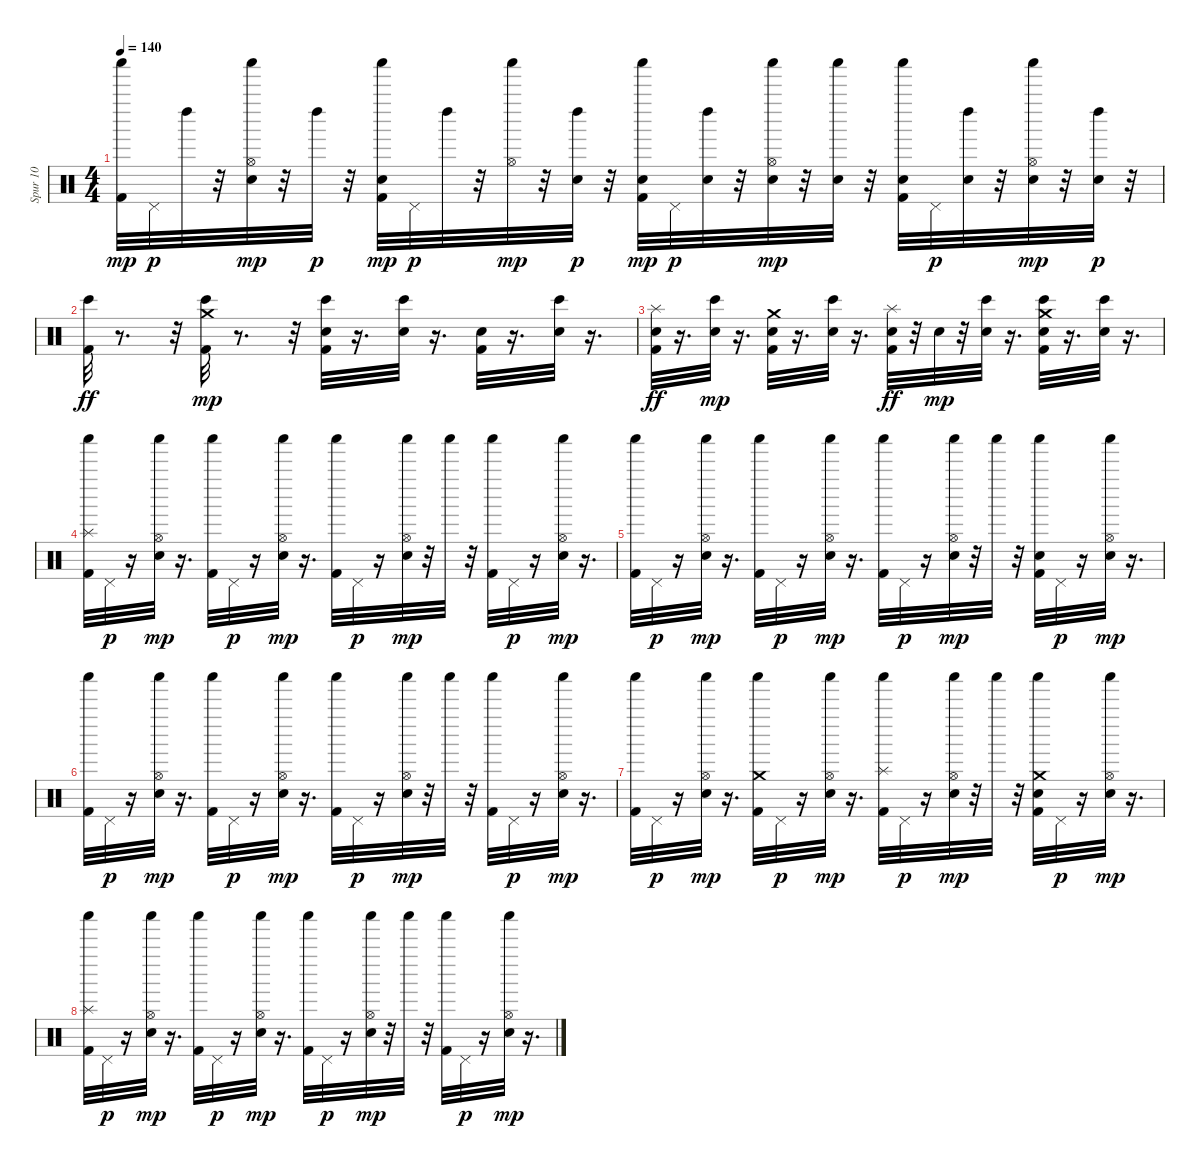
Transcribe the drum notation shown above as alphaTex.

\track ("Spur 10" "Spur 10") {instrument percussion}
\staff {score}
\articulation defaults
\ts (4 4)
\tempo 140
\clef neutral
\ks c
("Kick (hit) 2" "Shaker (hit)").32{dy mp} "Pedal Hi-Hat (hit)".32{dy p} "Left Maraca (hit)".32 r.32 ("Hand Clap (hit)" "Hi-Hat (open)" "Shaker (hit)").32{dy mp} r.32 "Left Maraca (hit)".32{dy p} r.32 ("Kick (hit) 2" "Hand Clap (hit)" "Shaker (hit)").32{dy mp} "Pedal Hi-Hat (hit)".32{dy p} "Left Maraca (hit)".32 r.32 ("Hi-Hat (open)" "Shaker (hit)").32{dy mp} r.32 ("Hand Clap (hit)" "Left Maraca (hit)").32{dy p} r.32 ("Kick (hit) 2" "Hand Clap (hit)" "Shaker (hit)").32{dy mp} "Pedal Hi-Hat (hit)".32{dy p} ("Hand Clap (hit)" "Left Maraca (hit)").32 r.32 ("Hand Clap (hit)" "Hi-Hat (open)" "Shaker (hit)").32{dy mp} r.32 ("Hand Clap (hit)" "Shaker (hit)").32 r.32 ("Kick (hit) 2" "Hand Clap (hit)" "Shaker (hit)").32 "Pedal Hi-Hat (hit)".32{dy p} ("Hand Clap (hit)" "Left Maraca (hit)").32 r.32 ("Hand Clap (hit)" "Hi-Hat (open)" "Shaker (hit)").32{dy mp} r.32 ("Hand Clap (hit)" "Left Maraca (hit)").32{dy p} r.32 |
("Bongo High (hit)" "Kick (hit) 2").32{dy ff} r.8{d} r.32 ("Bongo High (hit)" "Kick (hit) 2" "Crash medium (hit)").32{dy mp} r.8{d} r.32 ("Bongo High (hit)" "Kick (hit) 2" "Hand Clap (hit)").32 r.16{d} ("Bongo High (hit)" "Hand Clap (hit)").32 r.16{d} ("Kick (hit) 2" "Hand Clap (hit)").32 r.16{d} ("Bongo High (hit)" "Hand Clap (hit)").32 r.16{d} |
("Kick (hit) 2" "Hand Clap (hit)" "Splash (hit)").32{dy ff} r.16{d} ("Bongo High (hit)" "Hand Clap (hit)").32{dy mp} r.16{d} ("Kick (hit) 2" "Hand Clap (hit)" "Crash medium (hit)").32 r.16{d} ("Bongo High (hit)" "Hand Clap (hit)").32 r.16{d} ("Kick (hit) 2" "Hand Clap (hit)" "Splash (hit)").32{dy ff} r.32 "Hand Clap (hit)".32{dy mp} r.32 ("Bongo High (hit)" "Hand Clap (hit)").32 r.16{d} ("Bongo High (hit)" "Kick (hit) 2" "Hand Clap (hit)" "Crash medium (hit)").32 r.16{d} ("Bongo High (hit)" "Hand Clap (hit)").32 r.16{d} |
("Kick (hit) 2" "Splash (hit)" "Shaker (hit)").32 "Pedal Hi-Hat (hit)".32{dy p} r.16 ("Hand Clap (hit)" "Hi-Hat (open)" "Shaker (hit)").32{dy mp} r.16{d} ("Kick (hit) 2" "Shaker (hit)").32 "Pedal Hi-Hat (hit)".32{dy p} r.16 ("Hand Clap (hit)" "Hi-Hat (open)" "Shaker (hit)").32{dy mp} r.16{d} ("Kick (hit) 2" "Shaker (hit)").32 "Pedal Hi-Hat (hit)".32{dy p} r.16 ("Hand Clap (hit)" "Hi-Hat (open)" "Shaker (hit)").32{dy mp} r.32 "Shaker (hit)".32 r.32 ("Kick (hit) 2" "Shaker (hit)").32 "Pedal Hi-Hat (hit)".32{dy p} r.16 ("Hand Clap (hit)" "Hi-Hat (open)" "Shaker (hit)").32{dy mp} r.16{d} |
("Kick (hit) 2" "Shaker (hit)").32 "Pedal Hi-Hat (hit)".32{dy p} r.16 ("Hand Clap (hit)" "Hi-Hat (open)" "Shaker (hit)").32{dy mp} r.16{d} ("Kick (hit) 2" "Shaker (hit)").32 "Pedal Hi-Hat (hit)".32{dy p} r.16 ("Hand Clap (hit)" "Hi-Hat (open)" "Shaker (hit)").32{dy mp} r.16{d} ("Kick (hit) 2" "Shaker (hit)").32 "Pedal Hi-Hat (hit)".32{dy p} r.16 ("Hand Clap (hit)" "Hi-Hat (open)" "Shaker (hit)").32{dy mp} r.32 "Shaker (hit)".32 r.32 ("Kick (hit) 2" "Hand Clap (hit)" "Shaker (hit)").32 "Pedal Hi-Hat (hit)".32{dy p} r.16 ("Hand Clap (hit)" "Hi-Hat (open)" "Shaker (hit)").32{dy mp} r.16{d} |
("Kick (hit) 2" "Shaker (hit)").32 "Pedal Hi-Hat (hit)".32{dy p} r.16 ("Hand Clap (hit)" "Hi-Hat (open)" "Shaker (hit)").32{dy mp} r.16{d} ("Kick (hit) 2" "Shaker (hit)").32 "Pedal Hi-Hat (hit)".32{dy p} r.16 ("Hand Clap (hit)" "Hi-Hat (open)" "Shaker (hit)").32{dy mp} r.16{d} ("Kick (hit) 2" "Shaker (hit)").32 "Pedal Hi-Hat (hit)".32{dy p} r.16 ("Hand Clap (hit)" "Hi-Hat (open)" "Shaker (hit)").32{dy mp} r.32 "Shaker (hit)".32 r.32 ("Kick (hit) 2" "Shaker (hit)").32 "Pedal Hi-Hat (hit)".32{dy p} r.16 ("Hand Clap (hit)" "Hi-Hat (open)" "Shaker (hit)").32{dy mp} r.16{d} |
("Kick (hit) 2" "Shaker (hit)").32 "Pedal Hi-Hat (hit)".32{dy p} r.16 ("Hand Clap (hit)" "Hi-Hat (open)" "Shaker (hit)").32{dy mp} r.16{d} ("Kick (hit) 2" "Crash medium (hit)" "Shaker (hit)").32 "Pedal Hi-Hat (hit)".32{dy p} r.16 ("Hand Clap (hit)" "Hi-Hat (open)" "Shaker (hit)").32{dy mp} r.16{d} ("Kick (hit) 2" "Splash (hit)" "Shaker (hit)").32 "Pedal Hi-Hat (hit)".32{dy p} r.16 ("Hand Clap (hit)" "Hi-Hat (open)" "Shaker (hit)").32{dy mp} r.32 "Shaker (hit)".32 r.32 ("Kick (hit) 2" "Hand Clap (hit)" "Crash medium (hit)" "Shaker (hit)").32 "Pedal Hi-Hat (hit)".32{dy p} r.16 ("Hand Clap (hit)" "Hi-Hat (open)" "Shaker (hit)").32{dy mp} r.16{d} |
("Kick (hit) 2" "Splash (hit)" "Shaker (hit)").32 "Pedal Hi-Hat (hit)".32{dy p} r.16 ("Hand Clap (hit)" "Hi-Hat (open)" "Shaker (hit)").32{dy mp} r.16{d} ("Kick (hit) 2" "Shaker (hit)").32 "Pedal Hi-Hat (hit)".32{dy p} r.16 ("Hand Clap (hit)" "Hi-Hat (open)" "Shaker (hit)").32{dy mp} r.16{d} ("Kick (hit) 2" "Shaker (hit)").32 "Pedal Hi-Hat (hit)".32{dy p} r.16 ("Hand Clap (hit)" "Hi-Hat (open)" "Shaker (hit)").32{dy mp} r.32 "Shaker (hit)".32 r.32 ("Kick (hit) 2" "Shaker (hit)").32 "Pedal Hi-Hat (hit)".32{dy p} r.16 ("Hand Clap (hit)" "Hi-Hat (open)" "Shaker (hit)").32{dy mp} r.16{d}
